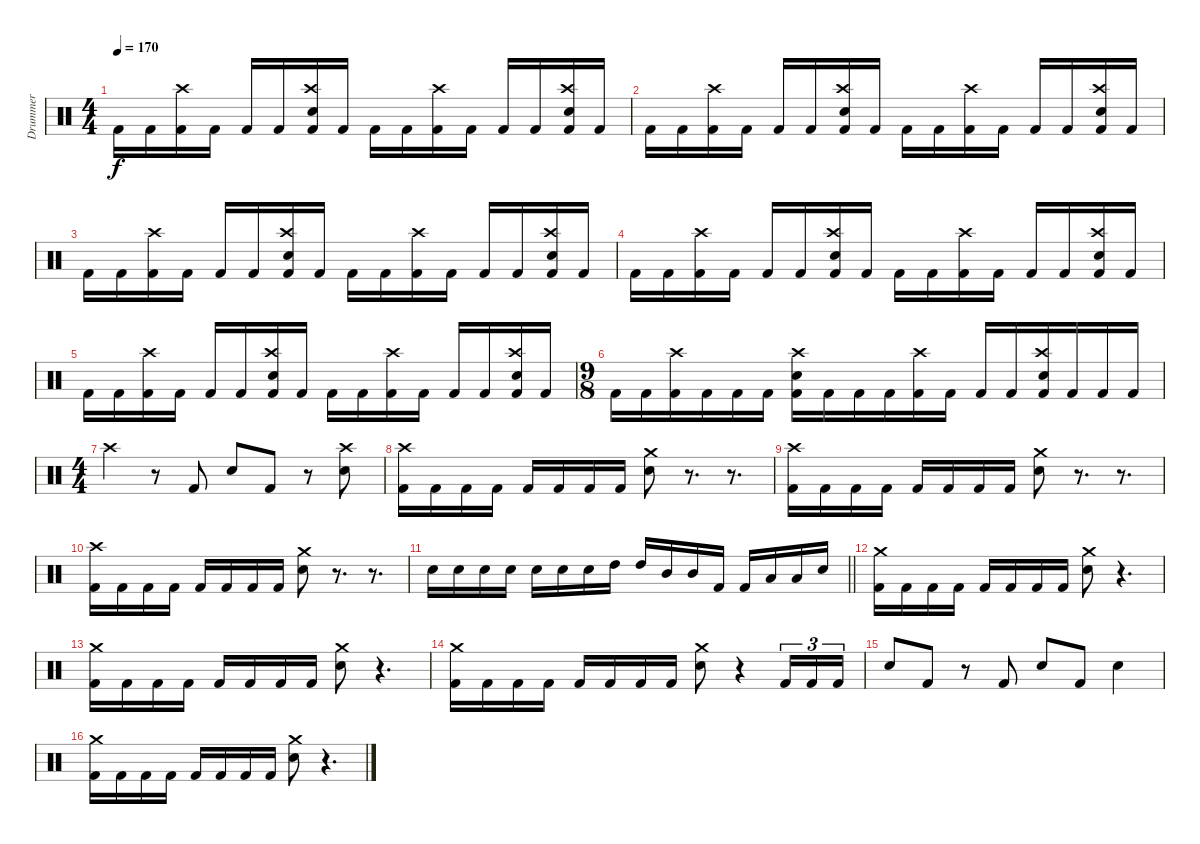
\track ("Drummer" "Drummer") {instrument percussion}
\staff {score}
\articulation defaults
\ts (4 4)
\tempo 170
\clef neutral
\ks c "Kick (hit) 2".16{dy f} "Kick (hit) 2".16
("Crash high (hit)" "Kick (hit) 2").16 "Kick (hit) 2".16 "Kick (hit) 2".16 "Kick (hit) 2".16 ("Crash high (hit)" "Electric Snare (hit)" "Kick (hit) 2").16 "Kick (hit) 2".16 "Kick (hit) 2".16 "Kick (hit) 2".16 ("Crash high (hit)" "Kick (hit) 2").16 "Kick (hit) 2".16 "Kick (hit) 2".16 "Kick (hit) 2".16 ("Crash high (hit)" "Electric Snare (hit)" "Kick (hit) 2").16 "Kick (hit) 2".16 |
"Kick (hit) 2".16 "Kick (hit) 2".16 ("Crash high (hit)" "Kick (hit) 2").16 "Kick (hit) 2".16 "Kick (hit) 2".16 "Kick (hit) 2".16 ("Crash high (hit)" "Electric Snare (hit)" "Kick (hit) 2").16 "Kick (hit) 2".16 "Kick (hit) 2".16 "Kick (hit) 2".16 ("Crash high (hit)" "Kick (hit) 2").16 "Kick (hit) 2".16 "Kick (hit) 2".16 "Kick (hit) 2".16 ("Crash high (hit)" "Electric Snare (hit)" "Kick (hit) 2").16 "Kick (hit) 2".16 |
"Kick (hit) 2".16 "Kick (hit) 2".16 ("Crash high (hit)" "Kick (hit) 2").16 "Kick (hit) 2".16 "Kick (hit) 2".16 "Kick (hit) 2".16 ("Crash high (hit)" "Electric Snare (hit)" "Kick (hit) 2").16 "Kick (hit) 2".16 "Kick (hit) 2".16 "Kick (hit) 2".16 ("Crash high (hit)" "Kick (hit) 2").16 "Kick (hit) 2".16 "Kick (hit) 2".16 "Kick (hit) 2".16 ("Crash high (hit)" "Electric Snare (hit)" "Kick (hit) 2").16 "Kick (hit) 2".16 |
"Kick (hit) 2".16 "Kick (hit) 2".16 ("Crash high (hit)" "Kick (hit) 2").16 "Kick (hit) 2".16 "Kick (hit) 2".16 "Kick (hit) 2".16 ("Crash high (hit)" "Electric Snare (hit)" "Kick (hit) 2").16 "Kick (hit) 2".16 "Kick (hit) 2".16 "Kick (hit) 2".16 ("Crash high (hit)" "Kick (hit) 2").16 "Kick (hit) 2".16 "Kick (hit) 2".16 "Kick (hit) 2".16 ("Crash high (hit)" "Electric Snare (hit)" "Kick (hit) 2").16 "Kick (hit) 2".16 |
"Kick (hit) 2".16 "Kick (hit) 2".16 ("Crash high (hit)" "Kick (hit) 2").16 "Kick (hit) 2".16 "Kick (hit) 2".16 "Kick (hit) 2".16 ("Crash high (hit)" "Electric Snare (hit)" "Kick (hit) 2").16 "Kick (hit) 2".16 "Kick (hit) 2".16 "Kick (hit) 2".16 ("Crash high (hit)" "Kick (hit) 2").16 "Kick (hit) 2".16 "Kick (hit) 2".16 "Kick (hit) 2".16 ("Crash high (hit)" "Electric Snare (hit)" "Kick (hit) 2").16 "Kick (hit) 2".16 |
\ts (9 8)
"Kick (hit) 2".16 "Kick (hit) 2".16 ("Crash high (hit)" "Kick (hit) 2").16 "Kick (hit) 2".16 "Kick (hit) 2".16 "Kick (hit) 2".16 ("Crash high (hit)" "Electric Snare (hit)" "Kick (hit) 2").16 "Kick (hit) 2".16 "Kick (hit) 2".16 "Kick (hit) 2".16 ("Crash high (hit)" "Kick (hit) 2").16 "Kick (hit) 2".16 "Kick (hit) 2".16 "Kick (hit) 2".16 ("Crash high (hit)" "Electric Snare (hit)" "Kick (hit) 2").16 "Kick (hit) 2".16 "Kick (hit) 2".16 "Kick (hit) 2".16 |
\ts (4 4)
"Crash high (hit)".4 r.8 "Kick (hit) 2".8 "Electric Snare (hit)".8 "Kick (hit) 2".8 r.8 ("Crash high (hit)" "Electric Snare (hit)").8 |
("Crash high (hit)" "Kick (hit) 2").16 "Kick (hit) 2".16 "Kick (hit) 2".16 "Kick (hit) 2".16 "Kick (hit) 2".16 "Kick (hit) 2".16 "Kick (hit) 2".16 "Kick (hit) 2".16 ("Crash medium (hit)" "Electric Snare (hit)").8 r.8{d} r.8{d} |
("Crash high (hit)" "Kick (hit) 2").16 "Kick (hit) 2".16 "Kick (hit) 2".16 "Kick (hit) 2".16 "Kick (hit) 2".16 "Kick (hit) 2".16 "Kick (hit) 2".16 "Kick (hit) 2".16 ("Crash medium (hit)" "Electric Snare (hit)").8 r.8{d} r.8{d} |
("Crash high (hit)" "Kick (hit) 2").16 "Kick (hit) 2".16 "Kick (hit) 2".16 "Kick (hit) 2".16 "Kick (hit) 2".16 "Kick (hit) 2".16 "Kick (hit) 2".16 "Kick (hit) 2".16 ("Crash medium (hit)" "Electric Snare (hit)").8 r.8{d} r.8{d} |
\barLineRight lightlight "Electric Snare (hit)".16 "Electric Snare (hit)".16 "Electric Snare (hit)".16 "Electric Snare (hit)".16 "Electric Snare (hit)".16 "Electric Snare (hit)".16 "Electric Snare (hit)".16 "High Tom (hit)".16 "High Tom (hit)".16 "Mid Tom (hit)".16 "Mid Tom (hit)".16 "Kick (hit) 2".16 "Kick (hit) 2".16 "Low Tom (hit)".16 "Low Tom (hit)".16 "Electric Snare (hit)".16
|
("Crash medium (hit)" "Kick (hit) 2").16 "Kick (hit) 2".16 "Kick (hit) 2".16 "Kick (hit) 2".16 "Kick (hit) 2".16 "Kick (hit) 2".16 "Kick (hit) 2".16 "Kick (hit) 2".16 ("Crash medium (hit)" "Electric Snare (hit)").8 r.4{d} |
("Crash medium (hit)" "Kick (hit) 2").16 "Kick (hit) 2".16 "Kick (hit) 2".16 "Kick (hit) 2".16 "Kick (hit) 2".16 "Kick (hit) 2".16 "Kick (hit) 2".16 "Kick (hit) 2".16 ("Crash medium (hit)" "Electric Snare (hit)").8 r.4{d} |
("Crash medium (hit)" "Kick (hit) 2").16 "Kick (hit) 2".16 "Kick (hit) 2".16 "Kick (hit) 2".16 "Kick (hit) 2".16 "Kick (hit) 2".16 "Kick (hit) 2".16 "Kick (hit) 2".16 ("Crash medium (hit)" "Electric Snare (hit)").8 r.4 "Kick (hit) 2".16{tu (3 2)} "Kick (hit) 2".16{tu (3 2)} "Kick (hit) 2".16{tu (3 2)} |
"Electric Snare (hit)".8 "Kick (hit) 2".8 r.8 "Kick (hit) 2".8 "Electric Snare (hit)".8 "Kick (hit) 2".8 "Electric Snare (hit)".4 |
("Crash medium (hit)" "Kick (hit) 2").16 "Kick (hit) 2".16 "Kick (hit) 2".16 "Kick (hit) 2".16 "Kick (hit) 2".16 "Kick (hit) 2".16 "Kick (hit) 2".16 "Kick (hit) 2".16 ("Crash medium (hit)" "Electric Snare (hit)").8 r.4{d}
